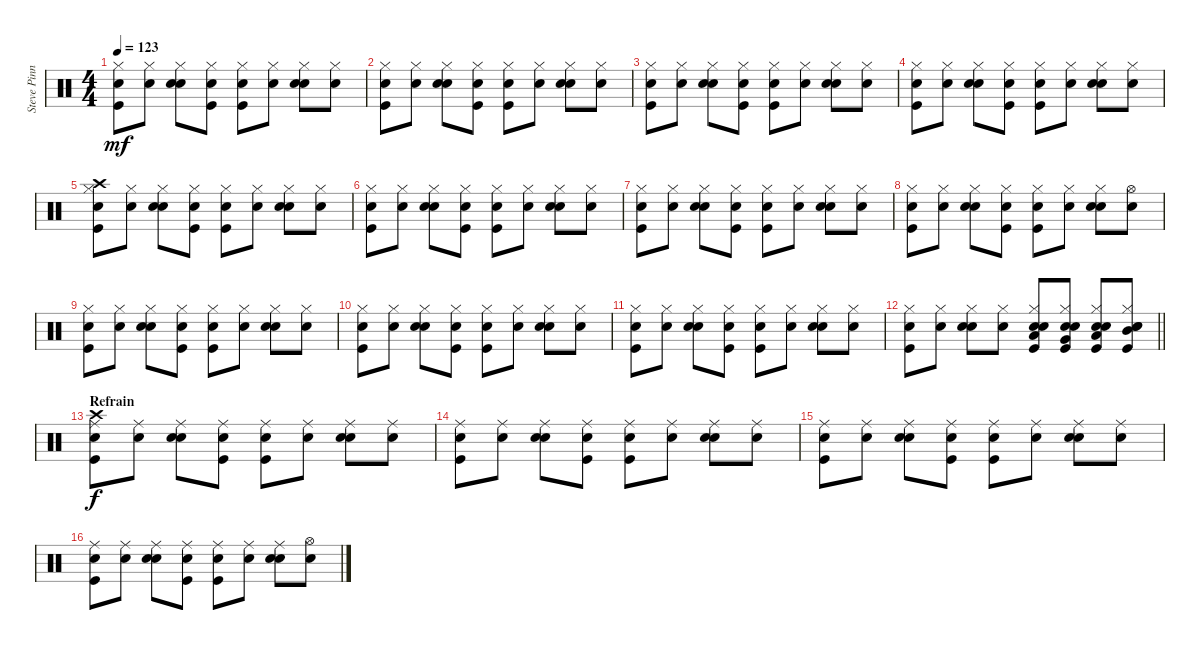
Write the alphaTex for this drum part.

\track ("Steve Pinnell - Drums" "Steve Pinn") {instrument percussion}
\staff {score}
\articulation defaults
\ts (4 4)
\tempo 123
\clef neutral
\ks c
("Kick (hit)" "Hi-Hat (closed)" "Snare (hit)").8{dy mf} ("Hi-Hat (closed)" "Snare (hit)").8 ("Metronome (bell)" "Hi-Hat (closed)" "Snare (hit)").8 ("Kick (hit)" "Hi-Hat (closed)" "Snare (hit)").8 ("Kick (hit)" "Hi-Hat (closed)" "Snare (hit)").8 ("Hi-Hat (closed)" "Snare (hit)").8 ("Metronome (bell)" "Hi-Hat (closed)" "Snare (hit)").8 ("Hi-Hat (closed)" "Snare (hit)").8 |
("Kick (hit)" "Hi-Hat (closed)" "Snare (hit)").8 ("Hi-Hat (closed)" "Snare (hit)").8 ("Metronome (bell)" "Hi-Hat (closed)" "Snare (hit)").8 ("Kick (hit)" "Hi-Hat (closed)" "Snare (hit)").8 ("Kick (hit)" "Hi-Hat (closed)" "Snare (hit)").8 ("Hi-Hat (closed)" "Snare (hit)").8 ("Metronome (bell)" "Hi-Hat (closed)" "Snare (hit)").8 ("Hi-Hat (closed)" "Snare (hit)").8 |
("Kick (hit)" "Hi-Hat (closed)" "Snare (hit)").8 ("Hi-Hat (closed)" "Snare (hit)").8 ("Metronome (bell)" "Hi-Hat (closed)" "Snare (hit)").8 ("Kick (hit)" "Hi-Hat (closed)" "Snare (hit)").8 ("Kick (hit)" "Hi-Hat (closed)" "Snare (hit)").8 ("Hi-Hat (closed)" "Snare (hit)").8 ("Metronome (bell)" "Hi-Hat (closed)" "Snare (hit)").8 ("Hi-Hat (closed)" "Snare (hit)").8 |
("Kick (hit)" "Hi-Hat (closed)" "Snare (hit)").8 ("Hi-Hat (closed)" "Snare (hit)").8 ("Metronome (bell)" "Hi-Hat (closed)" "Snare (hit)").8 ("Kick (hit)" "Hi-Hat (closed)" "Snare (hit)").8 ("Kick (hit)" "Hi-Hat (closed)" "Snare (hit)").8 ("Hi-Hat (closed)" "Snare (hit)").8 ("Metronome (bell)" "Hi-Hat (closed)" "Snare (hit)").8 ("Hi-Hat (closed)" "Snare (hit)").8 |
("Crash high (hit)" "Kick (hit)" "Hi-Hat (closed)" "Snare (hit)").8 ("Hi-Hat (closed)" "Snare (hit)").8 ("Metronome (bell)" "Hi-Hat (closed)" "Snare (hit)").8 ("Kick (hit)" "Hi-Hat (closed)" "Snare (hit)").8 ("Kick (hit)" "Hi-Hat (closed)" "Snare (hit)").8 ("Hi-Hat (closed)" "Snare (hit)").8 ("Metronome (bell)" "Hi-Hat (closed)" "Snare (hit)").8 ("Hi-Hat (closed)" "Snare (hit)").8 |
("Kick (hit)" "Hi-Hat (closed)" "Snare (hit)").8 ("Hi-Hat (closed)" "Snare (hit)").8 ("Metronome (bell)" "Hi-Hat (closed)" "Snare (hit)").8 ("Kick (hit)" "Hi-Hat (closed)" "Snare (hit)").8 ("Kick (hit)" "Hi-Hat (closed)" "Snare (hit)").8 ("Hi-Hat (closed)" "Snare (hit)").8 ("Metronome (bell)" "Hi-Hat (closed)" "Snare (hit)").8 ("Hi-Hat (closed)" "Snare (hit)").8 |
("Kick (hit)" "Hi-Hat (closed)" "Snare (hit)").8 ("Hi-Hat (closed)" "Snare (hit)").8 ("Metronome (bell)" "Hi-Hat (closed)" "Snare (hit)").8 ("Kick (hit)" "Hi-Hat (closed)" "Snare (hit)").8 ("Kick (hit)" "Hi-Hat (closed)" "Snare (hit)").8 ("Hi-Hat (closed)" "Snare (hit)").8 ("Metronome (bell)" "Hi-Hat (closed)" "Snare (hit)").8 ("Hi-Hat (closed)" "Snare (hit)").8 |
("Kick (hit)" "Hi-Hat (closed)" "Snare (hit)").8 ("Hi-Hat (closed)" "Snare (hit)").8 ("Metronome (bell)" "Hi-Hat (closed)" "Snare (hit)").8 ("Kick (hit)" "Hi-Hat (closed)" "Snare (hit)").8 ("Kick (hit)" "Hi-Hat (closed)" "Snare (hit)").8 ("Hi-Hat (closed)" "Snare (hit)").8 ("Metronome (bell)" "Hi-Hat (closed)" "Snare (hit)").8 ("Hi-Hat (open)" "Snare (hit)").8 |
("Kick (hit)" "Hi-Hat (closed)" "Snare (hit)").8 ("Hi-Hat (closed)" "Snare (hit)").8 ("Metronome (bell)" "Hi-Hat (closed)" "Snare (hit)").8 ("Kick (hit)" "Hi-Hat (closed)" "Snare (hit)").8 ("Kick (hit)" "Hi-Hat (closed)" "Snare (hit)").8 ("Hi-Hat (closed)" "Snare (hit)").8 ("Metronome (bell)" "Hi-Hat (closed)" "Snare (hit)").8 ("Hi-Hat (closed)" "Snare (hit)").8 |
("Kick (hit)" "Hi-Hat (closed)" "Snare (hit)").8 ("Hi-Hat (closed)" "Snare (hit)").8 ("Metronome (bell)" "Hi-Hat (closed)" "Snare (hit)").8 ("Kick (hit)" "Hi-Hat (closed)" "Snare (hit)").8 ("Kick (hit)" "Hi-Hat (closed)" "Snare (hit)").8 ("Hi-Hat (closed)" "Snare (hit)").8 ("Metronome (bell)" "Hi-Hat (closed)" "Snare (hit)").8 ("Hi-Hat (closed)" "Snare (hit)").8 |
("Kick (hit)" "Hi-Hat (closed)" "Snare (hit)").8 ("Hi-Hat (closed)" "Snare (hit)").8 ("Metronome (bell)" "Hi-Hat (closed)" "Snare (hit)").8 ("Kick (hit)" "Hi-Hat (closed)" "Snare (hit)").8 ("Kick (hit)" "Hi-Hat (closed)" "Snare (hit)").8 ("Hi-Hat (closed)" "Snare (hit)").8 ("Metronome (bell)" "Hi-Hat (closed)" "Snare (hit)").8 ("Hi-Hat (closed)" "Snare (hit)").8 |
\barLineRight lightlight
("Kick (hit)" "Hi-Hat (closed)" "Snare (hit)").8 ("Hi-Hat (closed)" "Snare (hit)").8 ("Metronome (bell)" "Hi-Hat (closed)" "Snare (hit)").8 ("Hi-Hat (closed)" "Snare (hit)").8 ("Metronome (bell)" "Low Floor Tom (hit)" "Kick (hit)" "Hi-Hat (closed)" "Snare (hit)").8 ("Metronome (bell)" "Very Low Tom (hit)" "Kick (hit)" "Hi-Hat (closed)" "Snare (hit)").8 ("Metronome (bell)" "Low Tom (hit)" "Kick (hit)" "Hi-Hat (closed)" "Snare (hit)").8 ("Metronome (bell)" "Mid Tom (hit)" "Kick (hit)" "Hi-Hat (closed)" "Snare (hit)").8 |
\section ("" "Refrain")
("Crash high (hit)" "Kick (hit)" "Ride (middle)" "Snare (hit)").8{dy f volume 14 balance 8} ("Ride (middle)" "Snare (hit)").8 ("Metronome (bell)" "Ride (middle)" "Snare (hit)").8 ("Kick (hit)" "Ride (middle)" "Snare (hit)").8 ("Kick (hit)" "Ride (middle)" "Snare (hit)").8 ("Ride (middle)" "Snare (hit)").8 ("Metronome (bell)" "Ride (middle)" "Snare (hit)").8 ("Ride (middle)" "Snare (hit)").8 |
("Kick (hit)" "Ride (middle)" "Snare (hit)").8 ("Ride (middle)" "Snare (hit)").8 ("Metronome (bell)" "Ride (middle)" "Snare (hit)").8 ("Kick (hit)" "Ride (middle)" "Snare (hit)").8 ("Kick (hit)" "Ride (middle)" "Snare (hit)").8 ("Ride (middle)" "Snare (hit)").8 ("Metronome (bell)" "Ride (middle)" "Snare (hit)").8 ("Ride (middle)" "Snare (hit)").8 |
("Kick (hit)" "Ride (middle)" "Snare (hit)").8 ("Ride (middle)" "Snare (hit)").8 ("Metronome (bell)" "Ride (middle)" "Snare (hit)").8 ("Kick (hit)" "Ride (middle)" "Snare (hit)").8 ("Kick (hit)" "Ride (middle)" "Snare (hit)").8 ("Ride (middle)" "Snare (hit)").8 ("Metronome (bell)" "Ride (middle)" "Snare (hit)").8 ("Ride (middle)" "Snare (hit)").8 |
("Kick (hit)" "Ride (middle)" "Snare (hit)").8 ("Ride (middle)" "Snare (hit)").8 ("Metronome (bell)" "Ride (middle)" "Snare (hit)").8 ("Kick (hit)" "Ride (middle)" "Snare (hit)").8 ("Kick (hit)" "Ride (middle)" "Snare (hit)").8 ("Ride (middle)" "Snare (hit)").8 ("Metronome (bell)" "Ride (middle)" "Snare (hit)").8 ("Hi-Hat (open)" "Snare (hit)").8
